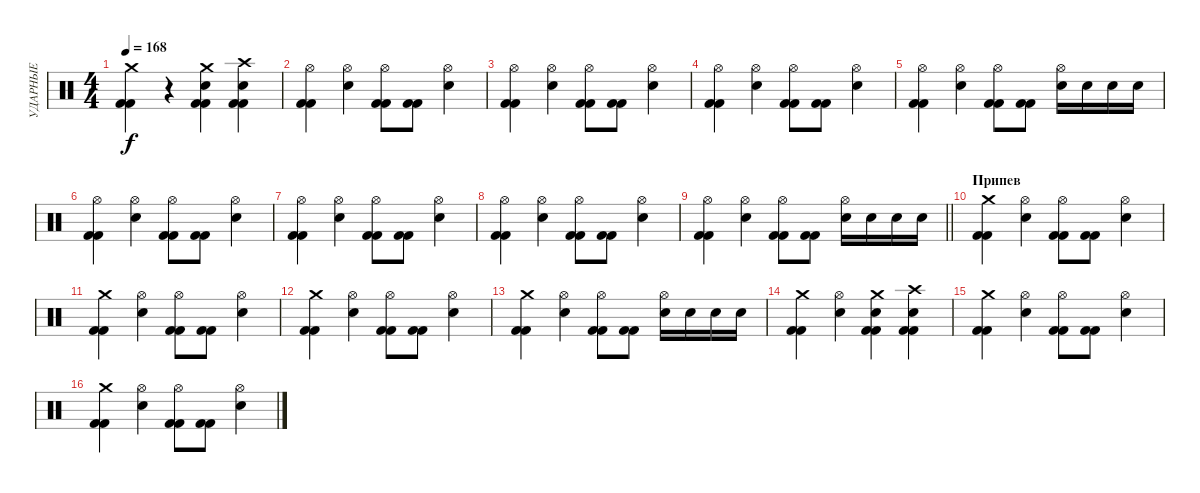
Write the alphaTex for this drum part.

\track ("УДАРНЫЕ" "УДАРНЫЕ") {instrument percussion}
\staff {score}
\articulation defaults
\ts (4 4)
\tempo 168
\clef neutral
\ks c
("Crash medium (hit)" "Kick (hit) 2" "Kick (hit) 2").4{dy f} r.4 ("Crash medium (hit)" "Snare (hit) 2" "Kick (hit) 2" "Kick (hit) 2").4 ("Crash high (hit)" "Snare (hit) 2" "Kick (hit) 2" "Kick (hit) 2").4 |
("Hi-Hat (open)" "Kick (hit) 2" "Kick (hit) 2").4 ("Hi-Hat (open)" "Snare (hit) 2").4 ("Hi-Hat (open)" "Kick (hit) 2" "Kick (hit) 2").8 ("Kick (hit) 2" "Kick (hit) 2").8 ("Hi-Hat (open)" "Snare (hit) 2").4 |
("Hi-Hat (open)" "Kick (hit) 2" "Kick (hit) 2").4 ("Hi-Hat (open)" "Snare (hit) 2").4 ("Hi-Hat (open)" "Kick (hit) 2" "Kick (hit) 2").8 ("Kick (hit) 2" "Kick (hit) 2").8 ("Hi-Hat (open)" "Snare (hit) 2").4 |
("Hi-Hat (open)" "Kick (hit) 2" "Kick (hit) 2").4 ("Hi-Hat (open)" "Snare (hit) 2").4 ("Hi-Hat (open)" "Kick (hit) 2" "Kick (hit) 2").8 ("Kick (hit) 2" "Kick (hit) 2").8 ("Hi-Hat (open)" "Snare (hit) 2").4 |
("Hi-Hat (open)" "Kick (hit) 2" "Kick (hit) 2").4 ("Hi-Hat (open)" "Snare (hit) 2").4 ("Hi-Hat (open)" "Kick (hit) 2" "Kick (hit) 2").8 ("Kick (hit) 2" "Kick (hit) 2").8 ("Hi-Hat (open)" "Snare (hit) 2").16 "Snare (hit) 2".16 "Snare (hit) 2".16 "Snare (hit) 2".16 |
("Hi-Hat (open)" "Kick (hit) 2" "Kick (hit) 2").4 ("Hi-Hat (open)" "Snare (hit) 2").4 ("Hi-Hat (open)" "Kick (hit) 2" "Kick (hit) 2").8 ("Kick (hit) 2" "Kick (hit) 2").8 ("Hi-Hat (open)" "Snare (hit) 2").4 |
("Hi-Hat (open)" "Kick (hit) 2" "Kick (hit) 2").4 ("Hi-Hat (open)" "Snare (hit) 2").4 ("Hi-Hat (open)" "Kick (hit) 2" "Kick (hit) 2").8 ("Kick (hit) 2" "Kick (hit) 2").8 ("Hi-Hat (open)" "Snare (hit) 2").4 |
("Hi-Hat (open)" "Kick (hit) 2" "Kick (hit) 2").4 ("Hi-Hat (open)" "Snare (hit) 2").4 ("Hi-Hat (open)" "Kick (hit) 2" "Kick (hit) 2").8 ("Kick (hit) 2" "Kick (hit) 2").8 ("Hi-Hat (open)" "Snare (hit) 2").4 |
\barLineRight lightlight
("Hi-Hat (open)" "Kick (hit) 2" "Kick (hit) 2").4 ("Hi-Hat (open)" "Snare (hit) 2").4 ("Hi-Hat (open)" "Kick (hit) 2" "Kick (hit) 2").8 ("Kick (hit) 2" "Kick (hit) 2").8 ("Hi-Hat (open)" "Snare (hit) 2").16 "Snare (hit) 2".16 "Snare (hit) 2".16 "Snare (hit) 2".16 |
\section ("" "Припев")
("Crash medium (hit)" "Kick (hit) 2" "Kick (hit) 2").4 ("Hi-Hat (open)" "Snare (hit) 2").4 ("Hi-Hat (open)" "Kick (hit) 2" "Kick (hit) 2").8 ("Kick (hit) 2" "Kick (hit) 2").8 ("Hi-Hat (open)" "Snare (hit) 2").4 |
("Crash medium (hit)" "Kick (hit) 2" "Kick (hit) 2").4 ("Hi-Hat (open)" "Snare (hit) 2").4 ("Hi-Hat (open)" "Kick (hit) 2" "Kick (hit) 2").8 ("Kick (hit) 2" "Kick (hit) 2").8 ("Hi-Hat (open)" "Snare (hit) 2").4 |
("Crash medium (hit)" "Kick (hit) 2" "Kick (hit) 2").4 ("Hi-Hat (open)" "Snare (hit) 2").4 ("Hi-Hat (open)" "Kick (hit) 2" "Kick (hit) 2").8 ("Kick (hit) 2" "Kick (hit) 2").8 ("Hi-Hat (open)" "Snare (hit) 2").4 |
("Crash medium (hit)" "Kick (hit) 2" "Kick (hit) 2").4 ("Hi-Hat (open)" "Snare (hit) 2").4 ("Hi-Hat (open)" "Kick (hit) 2" "Kick (hit) 2").8 ("Kick (hit) 2" "Kick (hit) 2").8 ("Hi-Hat (open)" "Snare (hit) 2").16 "Snare (hit) 2".16 "Snare (hit) 2".16 "Snare (hit) 2".16 |
("Crash medium (hit)" "Kick (hit) 2" "Kick (hit) 2").4 ("Hi-Hat (open)" "Snare (hit) 2").4 ("Crash medium (hit)" "Snare (hit) 2" "Kick (hit) 2" "Kick (hit) 2").4 ("Crash high (hit)" "Snare (hit) 2" "Kick (hit) 2" "Kick (hit) 2").4 |
("Crash medium (hit)" "Kick (hit) 2" "Kick (hit) 2").4 ("Hi-Hat (open)" "Snare (hit) 2").4 ("Hi-Hat (open)" "Kick (hit) 2" "Kick (hit) 2").8 ("Kick (hit) 2" "Kick (hit) 2").8 ("Hi-Hat (open)" "Snare (hit) 2").4 |
("Crash medium (hit)" "Kick (hit) 2" "Kick (hit) 2").4 ("Hi-Hat (open)" "Snare (hit) 2").4 ("Hi-Hat (open)" "Kick (hit) 2" "Kick (hit) 2").8 ("Kick (hit) 2" "Kick (hit) 2").8 ("Hi-Hat (open)" "Snare (hit) 2").4
